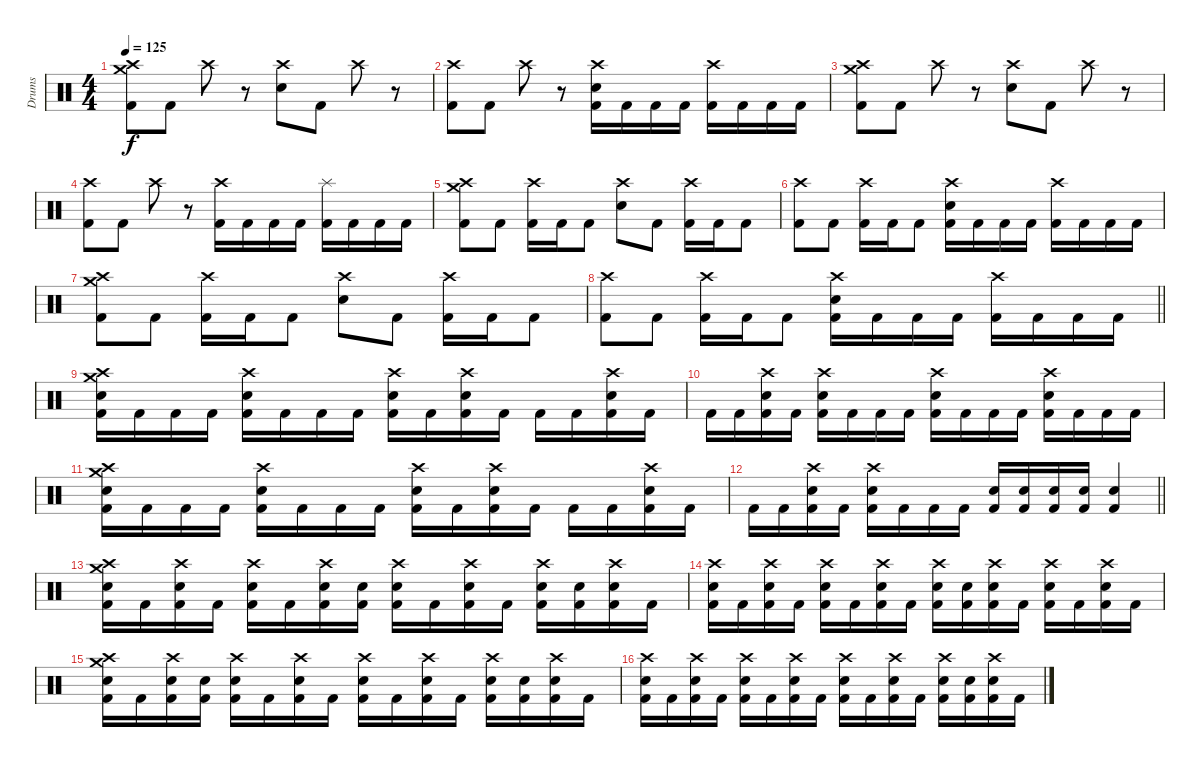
\track ("Drums" "Drums") {instrument percussion}
\staff {score}
\articulation defaults
\ts (4 4)
\section ("" "")
\tempo 125
\clef neutral
\ks c
("Crash medium (hit)" "Crash high (hit)" "Kick (hit) 2").8{dy f} "Kick (hit) 2".8 "Crash high (hit)".8 r.8 ("Crash high (hit)" "Electric Snare (hit)").8 "Kick (hit) 2".8 "Crash high (hit)".8 r.8 |
("Crash high (hit)" "Kick (hit) 2").8 "Kick (hit) 2".8 "Crash high (hit)".8 r.8 ("Crash high (hit)" "Electric Snare (hit)" "Kick (hit) 2").16 "Kick (hit) 2".16 "Kick (hit) 2".16 "Kick (hit) 2".16 ("Crash high (hit)" "Kick (hit) 2").16 "Kick (hit) 2".16 "Kick (hit) 2".16 "Kick (hit) 2".16 |
("Crash medium (hit)" "Crash high (hit)" "Kick (hit) 2").8 "Kick (hit) 2".8 "Crash high (hit)".8 r.8 ("Crash high (hit)" "Electric Snare (hit)").8 "Kick (hit) 2".8 "Crash high (hit)".8 r.8 |
("Crash high (hit)" "Kick (hit) 2").8 "Kick (hit) 2".8 "Crash high (hit)".8 r.8 ("Crash high (hit)" "Kick (hit) 2").16 "Kick (hit) 2".16 "Kick (hit) 2".16 "Kick (hit) 2".16 ("Splash (hit)" "Kick (hit) 2").16 "Kick (hit) 2".16 "Kick (hit) 2".16 "Kick (hit) 2".16 |
("Crash medium (hit)" "Crash high (hit)" "Kick (hit) 2").8 "Kick (hit) 2".8 ("Crash high (hit)" "Kick (hit) 2").16 "Kick (hit) 2".16 "Kick (hit) 2".8 ("Crash high (hit)" "Electric Snare (hit)").8 "Kick (hit) 2".8 ("Crash high (hit)" "Kick (hit) 2").16 "Kick (hit) 2".16 "Kick (hit) 2".8 |
("Crash high (hit)" "Kick (hit) 2").8 "Kick (hit) 2".8 ("Crash high (hit)" "Kick (hit) 2").16 "Kick (hit) 2".16 "Kick (hit) 2".8 ("Crash high (hit)" "Electric Snare (hit)" "Kick (hit) 2").16 "Kick (hit) 2".16 "Kick (hit) 2".16 "Kick (hit) 2".16 ("Crash high (hit)" "Kick (hit) 2").16 "Kick (hit) 2".16 "Kick (hit) 2".16 "Kick (hit) 2".16 |
("Crash medium (hit)" "Crash high (hit)" "Kick (hit) 2").8 "Kick (hit) 2".8 ("Crash high (hit)" "Kick (hit) 2").16 "Kick (hit) 2".16 "Kick (hit) 2".8 ("Crash high (hit)" "Electric Snare (hit)").8 "Kick (hit) 2".8 ("Crash high (hit)" "Kick (hit) 2").16 "Kick (hit) 2".16 "Kick (hit) 2".8 |
\barLineRight lightlight
("Crash high (hit)" "Kick (hit) 2").8 "Kick (hit) 2".8 ("Crash high (hit)" "Kick (hit) 2").16 "Kick (hit) 2".16 "Kick (hit) 2".8 ("Crash high (hit)" "Electric Snare (hit)" "Kick (hit) 2").16 "Kick (hit) 2".16 "Kick (hit) 2".16 "Kick (hit) 2".16 ("Crash high (hit)" "Kick (hit) 2").16 "Kick (hit) 2".16 "Kick (hit) 2".16 "Kick (hit) 2".16 |
\section ("" "")
("Crash medium (hit)" "Crash high (hit)" "Electric Snare (hit)" "Kick (hit) 2").16 "Kick (hit) 2".16 "Kick (hit) 2".16 "Kick (hit) 2".16 ("Crash high (hit)" "Electric Snare (hit)" "Kick (hit) 2").16 "Kick (hit) 2".16 "Kick (hit) 2".16 "Kick (hit) 2".16 ("Crash high (hit)" "Electric Snare (hit)" "Kick (hit) 2").16 "Kick (hit) 2".16 ("Crash high (hit)" "Electric Snare (hit)" "Kick (hit) 2").16 "Kick (hit) 2".16 "Kick (hit) 2".16 "Kick (hit) 2".16 ("Crash high (hit)" "Electric Snare (hit)" "Kick (hit) 2").16 "Kick (hit) 2".16 |
"Kick (hit) 2".16 "Kick (hit) 2".16 ("Crash high (hit)" "Electric Snare (hit)" "Kick (hit) 2").16 "Kick (hit) 2".16 ("Crash high (hit)" "Electric Snare (hit)" "Kick (hit) 2").16 "Kick (hit) 2".16 "Kick (hit) 2".16 "Kick (hit) 2".16 ("Crash high (hit)" "Electric Snare (hit)" "Kick (hit) 2").16 "Kick (hit) 2".16 "Kick (hit) 2".16 "Kick (hit) 2".16 ("Crash high (hit)" "Electric Snare (hit)" "Kick (hit) 2").16 "Kick (hit) 2".16 "Kick (hit) 2".16 "Kick (hit) 2".16 |
("Crash medium (hit)" "Crash high (hit)" "Electric Snare (hit)" "Kick (hit) 2").16 "Kick (hit) 2".16 "Kick (hit) 2".16 "Kick (hit) 2".16 ("Crash high (hit)" "Electric Snare (hit)" "Kick (hit) 2").16 "Kick (hit) 2".16 "Kick (hit) 2".16 "Kick (hit) 2".16 ("Crash high (hit)" "Electric Snare (hit)" "Kick (hit) 2").16 "Kick (hit) 2".16 ("Crash high (hit)" "Electric Snare (hit)" "Kick (hit) 2").16 "Kick (hit) 2".16 "Kick (hit) 2".16 "Kick (hit) 2".16 ("Crash high (hit)" "Electric Snare (hit)" "Kick (hit) 2").16 "Kick (hit) 2".16 |
\barLineRight lightlight "Kick (hit) 2".16 "Kick (hit) 2".16
("Crash high (hit)" "Electric Snare (hit)" "Kick (hit) 2").16 "Kick (hit) 2".16 ("Crash high (hit)" "Electric Snare (hit)" "Kick (hit) 2").16 "Kick (hit) 2".16 "Kick (hit) 2".16 "Kick (hit) 2".16 ("Electric Snare (hit)" "Kick (hit) 2").16 ("Electric Snare (hit)" "Kick (hit) 2").16 ("Electric Snare (hit)" "Kick (hit) 2").16 ("Electric Snare (hit)" "Kick (hit) 2").16 ("Electric Snare (hit)" "Kick (hit) 2").4 |
\section ("" "")
("Crash medium (hit)" "Crash high (hit)" "Electric Snare (hit)" "Kick (hit) 2").16 "Kick (hit) 2".16 ("Crash high (hit)" "Electric Snare (hit)" "Kick (hit) 2").16 "Kick (hit) 2".16 ("Crash high (hit)" "Electric Snare (hit)" "Kick (hit) 2").16 "Kick (hit) 2".16 ("Crash high (hit)" "Electric Snare (hit)" "Kick (hit) 2").16 ("Electric Snare (hit)" "Kick (hit) 2").16 ("Crash high (hit)" "Electric Snare (hit)" "Kick (hit) 2").16 "Kick (hit) 2".16 ("Crash high (hit)" "Electric Snare (hit)" "Kick (hit) 2").16 "Kick (hit) 2".16 ("Crash high (hit)" "Electric Snare (hit)" "Kick (hit) 2").16 ("Electric Snare (hit)" "Kick (hit) 2").16 ("Crash high (hit)" "Electric Snare (hit)" "Kick (hit) 2").16 "Kick (hit) 2".16 |
("Crash high (hit)" "Electric Snare (hit)" "Kick (hit) 2").16 "Kick (hit) 2".16 ("Crash high (hit)" "Electric Snare (hit)" "Kick (hit) 2").16 "Kick (hit) 2".16 ("Crash high (hit)" "Electric Snare (hit)" "Kick (hit) 2").16 "Kick (hit) 2".16 ("Crash high (hit)" "Electric Snare (hit)" "Kick (hit) 2").16 "Kick (hit) 2".16 ("Crash high (hit)" "Electric Snare (hit)" "Kick (hit) 2").16 ("Electric Snare (hit)" "Kick (hit) 2").16 ("Crash high (hit)" "Electric Snare (hit)" "Kick (hit) 2").16 "Kick (hit) 2".16 ("Crash high (hit)" "Electric Snare (hit)" "Kick (hit) 2").16 "Kick (hit) 2".16 ("Crash high (hit)" "Electric Snare (hit)" "Kick (hit) 2").16 "Kick (hit) 2".16 |
("Crash medium (hit)" "Crash high (hit)" "Electric Snare (hit)" "Kick (hit) 2").16 "Kick (hit) 2".16 ("Crash high (hit)" "Electric Snare (hit)" "Kick (hit) 2").16 ("Electric Snare (hit)" "Kick (hit) 2").16 ("Crash high (hit)" "Electric Snare (hit)" "Kick (hit) 2").16 "Kick (hit) 2".16 ("Crash high (hit)" "Electric Snare (hit)" "Kick (hit) 2").16 "Kick (hit) 2".16 ("Crash high (hit)" "Electric Snare (hit)" "Kick (hit) 2").16 "Kick (hit) 2".16 ("Crash high (hit)" "Electric Snare (hit)" "Kick (hit) 2").16 "Kick (hit) 2".16 ("Crash high (hit)" "Electric Snare (hit)" "Kick (hit) 2").16 ("Electric Snare (hit)" "Kick (hit) 2").16 ("Crash high (hit)" "Electric Snare (hit)" "Kick (hit) 2").16 "Kick (hit) 2".16 |
("Crash high (hit)" "Electric Snare (hit)" "Kick (hit) 2").16 "Kick (hit) 2".16 ("Crash high (hit)" "Electric Snare (hit)" "Kick (hit) 2").16 "Kick (hit) 2".16 ("Crash high (hit)" "Electric Snare (hit)" "Kick (hit) 2").16 "Kick (hit) 2".16 ("Crash high (hit)" "Electric Snare (hit)" "Kick (hit) 2").16 "Kick (hit) 2".16 ("Crash high (hit)" "Electric Snare (hit)" "Kick (hit) 2").16 "Kick (hit) 2".16 ("Crash high (hit)" "Electric Snare (hit)" "Kick (hit) 2").16 "Kick (hit) 2".16 ("Crash high (hit)" "Electric Snare (hit)" "Kick (hit) 2").16 ("Electric Snare (hit)" "Kick (hit) 2").16 ("Crash high (hit)" "Electric Snare (hit)" "Kick (hit) 2").16 "Kick (hit) 2".16
